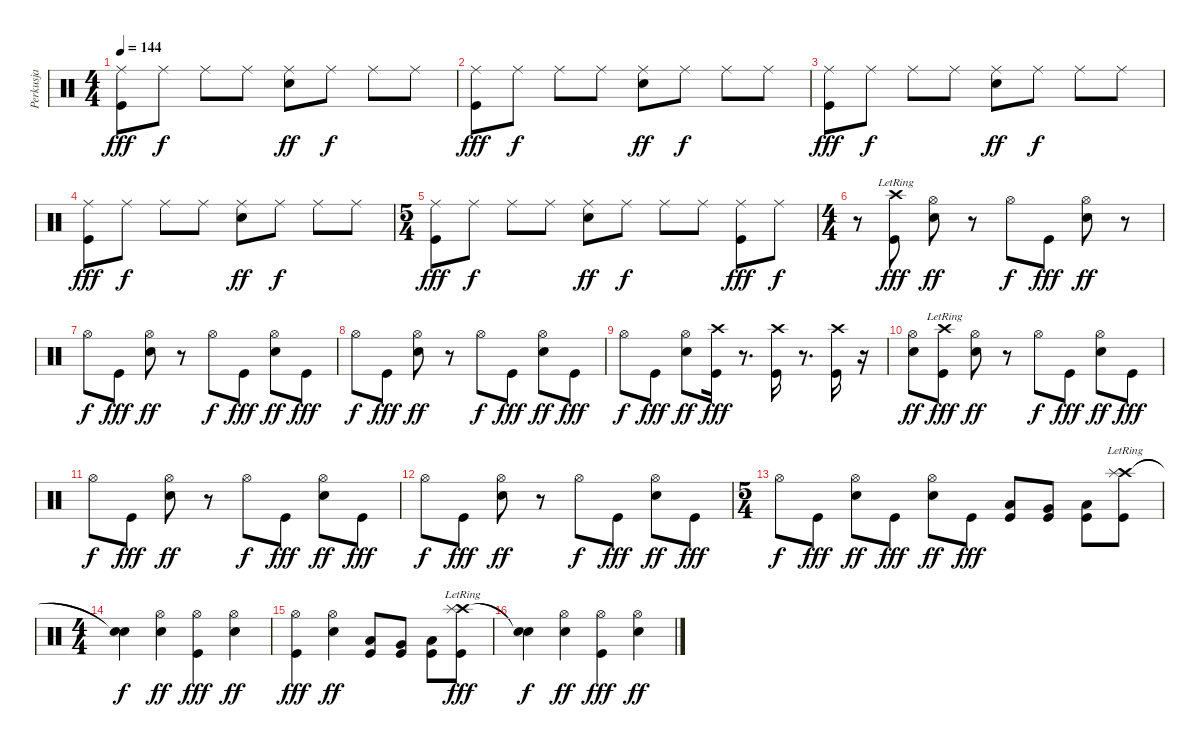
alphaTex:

\track ("Perkusja" "Perkusja") {instrument percussion}
\staff {score}
\articulation defaults
\ts (4 4)
\tempo 144
\clef neutral
\ks c
("Ride (middle)" "Kick (hit)").8{dy fff} "Ride (middle)".8{dy f} "Ride (middle)".8 "Ride (middle)".8 ("Ride (middle)" "Electric Snare (hit)").8{dy ff} "Ride (middle)".8{dy f} "Ride (middle)".8 "Ride (middle)".8 |
("Ride (middle)" "Kick (hit)").8{dy fff} "Ride (middle)".8{dy f} "Ride (middle)".8 "Ride (middle)".8 ("Ride (middle)" "Electric Snare (hit)").8{dy ff} "Ride (middle)".8{dy f} "Ride (middle)".8 "Ride (middle)".8 |
("Ride (middle)" "Kick (hit)").8{dy fff} "Ride (middle)".8{dy f} "Ride (middle)".8 "Ride (middle)".8 ("Ride (middle)" "Electric Snare (hit)").8{dy ff} "Ride (middle)".8{dy f} "Ride (middle)".8 "Ride (middle)".8 |
("Ride (middle)" "Kick (hit)").8{dy fff} "Ride (middle)".8{dy f} "Ride (middle)".8 "Ride (middle)".8 ("Ride (middle)" "Electric Snare (hit)").8{dy ff} "Ride (middle)".8{dy f} "Ride (middle)".8 "Ride (middle)".8 |
\ts (5 4)
("Ride (middle)" "Kick (hit)").8{dy fff} "Ride (middle)".8{dy f} "Ride (middle)".8 "Ride (middle)".8 ("Ride (middle)" "Electric Snare (hit)").8{dy ff} "Ride (middle)".8{dy f} "Ride (middle)".8 "Ride (middle)".8 ("Ride (middle)" "Kick (hit)").8{dy fff} "Ride (middle)".8{dy f} |
\ts (4 4)
r.8 ("Crash high (hit)"{lr} "Kick (hit)").8{dy fff} ("Hi-Hat (open)" "Electric Snare (hit)").8{dy ff} r.8 "Hi-Hat (open)".8{dy f} "Kick (hit)".8{dy fff} ("Hi-Hat (open)" "Electric Snare (hit)").8{dy ff} r.8 |
"Hi-Hat (open)".8{dy f} "Kick (hit)".8{dy fff} ("Hi-Hat (open)" "Electric Snare (hit)").8{dy ff} r.8 "Hi-Hat (open)".8{dy f} "Kick (hit)".8{dy fff} ("Hi-Hat (open)" "Electric Snare (hit)").8{dy ff} "Kick (hit)".8{dy fff} |
"Hi-Hat (open)".8{dy f} "Kick (hit)".8{dy fff} ("Hi-Hat (open)" "Electric Snare (hit)").8{dy ff} r.8 "Hi-Hat (open)".8{dy f} "Kick (hit)".8{dy fff} ("Hi-Hat (open)" "Electric Snare (hit)").8{dy ff} "Kick (hit)".8{dy fff} |
"Hi-Hat (open)".8{dy f} "Kick (hit)".8{dy fff} ("Hi-Hat (open)" "Electric Snare (hit)").8{dy ff} ("Crash high (hit)" "Kick (hit)").16{dy fff} r.8{d} ("Crash high (hit)" "Kick (hit)").16 r.8{d} ("Crash high (hit)" "Kick (hit)").16 r.16 |
("Hi-Hat (open)" "Electric Snare (hit)").8{dy ff} ("Crash high (hit)"{lr} "Kick (hit)").8{dy fff} ("Hi-Hat (open)" "Electric Snare (hit)").8{dy ff} r.8 "Hi-Hat (open)".8{dy f} "Kick (hit)".8{dy fff} ("Hi-Hat (open)" "Electric Snare (hit)").8{dy ff} "Kick (hit)".8{dy fff} |
"Hi-Hat (open)".8{dy f} "Kick (hit)".8{dy fff} ("Hi-Hat (open)" "Electric Snare (hit)").8{dy ff} r.8 "Hi-Hat (open)".8{dy f} "Kick (hit)".8{dy fff} ("Hi-Hat (open)" "Electric Snare (hit)").8{dy ff} "Kick (hit)".8{dy fff} |
"Hi-Hat (open)".8{dy f} "Kick (hit)".8{dy fff} ("Hi-Hat (open)" "Electric Snare (hit)").8{dy ff} r.8 "Hi-Hat (open)".8{dy f} "Kick (hit)".8{dy fff} ("Hi-Hat (open)" "Electric Snare (hit)").8{dy ff} "Kick (hit)".8{dy fff} |
\ts (5 4)
"Hi-Hat (open)".8{dy f} "Kick (hit)".8{dy fff} ("Hi-Hat (open)" "Electric Snare (hit)").8{dy ff} "Kick (hit)".8{dy fff} ("Hi-Hat (open)" "Electric Snare (hit)").8{dy ff} "Kick (hit)".8{dy fff} ("Low Tom (hit)" "Kick (hit)").8 ("Very Low Tom (hit)" "Kick (hit)").8 ("Low Floor Tom (hit)" "Kick (hit)").8 ("Crash high (hit)"{lr} "Splash (hit)"{lr} "Kick (hit)").8 |
\ts (4 4)
("Snare (hit)"{t} "Snare (hit)"{t}).4{dy f} ("Hi-Hat (open)" "Electric Snare (hit)").4{dy ff} ("Hi-Hat (open)" "Kick (hit)").4{dy fff} ("Hi-Hat (open)" "Electric Snare (hit)").4{dy ff} |
("Hi-Hat (open)" "Kick (hit)").4{dy fff} ("Hi-Hat (open)" "Electric Snare (hit)").4{dy ff} ("Low Tom (hit)" "Kick (hit)").8 ("Very Low Tom (hit)" "Kick (hit)").8 ("Low Floor Tom (hit)" "Kick (hit)").8 ("Crash high (hit)"{lr} "Splash (hit)"{lr} "Kick (hit)").8{dy fff} |
("Snare (hit)"{t} "Snare (hit)"{t}).4{dy f} ("Hi-Hat (open)" "Electric Snare (hit)").4{dy ff} ("Hi-Hat (open)" "Kick (hit)").4{dy fff} ("Hi-Hat (open)" "Electric Snare (hit)").4{dy ff}
